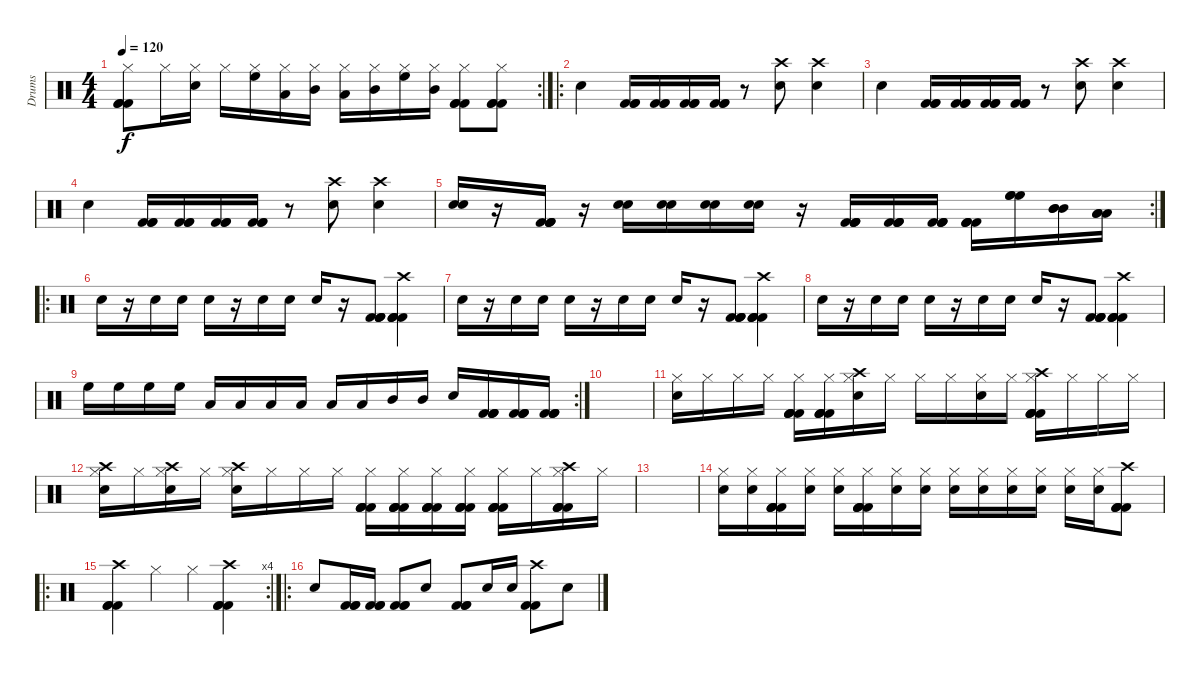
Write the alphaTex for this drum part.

\track ("Drums" "Drums") {instrument percussion}
\staff {score}
\articulation defaults
\rc 2
\ts (4 4)
\tempo 120
\clef neutral
\ks c
("Hi-Hat (closed)" "Kick (hit) 2" "Kick (hit) 2" "Kick (hit) 2").8{dy f} "Hi-Hat (closed)".16 ("Hi-Hat (closed)" "Snare (hit) 2").16 "Hi-Hat (closed)".16 ("Hi-Hat (closed)" "High Floor Tom (hit)").16 ("Hi-Hat (closed)" "Low Floor Tom (hit)").16 ("Hi-Hat (closed)" "Mid Tom (hit)").16 ("Hi-Hat (closed)" "Low Tom (hit)").16 ("Hi-Hat (closed)" "Mid Tom (hit)").16 ("Hi-Hat (closed)" "High Floor Tom (hit)").16 ("Hi-Hat (closed)" "Mid Tom (hit)").16 ("Hi-Hat (closed)" "Kick (hit) 2" "Kick (hit) 2" "Kick (hit) 2").8 ("Hi-Hat (closed)" "Kick (hit) 2" "Kick (hit) 2" "Kick (hit) 2").8 |
\ro "Snare (hit) 2".4
("Kick (hit) 2" "Kick (hit) 2" "Kick (hit) 2").16 ("Kick (hit) 2" "Kick (hit) 2" "Kick (hit) 2").16 ("Kick (hit) 2" "Kick (hit) 2" "Kick (hit) 2").16 ("Kick (hit) 2" "Kick (hit) 2" "Kick (hit) 2").16 r.8 ("Crash high (hit)" "Snare (hit) 2").8 ("Crash high (hit)" "Snare (hit) 2").4 |
"Snare (hit) 2".4 ("Kick (hit) 2" "Kick (hit) 2" "Kick (hit) 2").16 ("Kick (hit) 2" "Kick (hit) 2" "Kick (hit) 2").16 ("Kick (hit) 2" "Kick (hit) 2" "Kick (hit) 2").16 ("Kick (hit) 2" "Kick (hit) 2" "Kick (hit) 2").16 r.8 ("Crash high (hit)" "Snare (hit) 2").8 ("Crash high (hit)" "Snare (hit) 2").4 |
"Snare (hit) 2".4 ("Kick (hit) 2" "Kick (hit) 2" "Kick (hit) 2").16 ("Kick (hit) 2" "Kick (hit) 2" "Kick (hit) 2").16 ("Kick (hit) 2" "Kick (hit) 2" "Kick (hit) 2").16 ("Kick (hit) 2" "Kick (hit) 2" "Kick (hit) 2").16 r.8 ("Crash high (hit)" "Snare (hit) 2").8 ("Crash high (hit)" "Snare (hit) 2").4 |
\rc 2
("Snare (hit) 2" "Snare (hit) 2").16 r.16 ("Kick (hit) 2" "Kick (hit) 2" "Kick (hit) 2" "Kick (hit) 2").16 r.16 ("Snare (hit) 2" "Snare (hit) 2").16 ("Snare (hit) 2" "Snare (hit) 2").16 ("Snare (hit) 2" "Snare (hit) 2").16 ("Snare (hit) 2" "Snare (hit) 2").16 r.16 ("Kick (hit) 2" "Kick (hit) 2" "Kick (hit) 2" "Kick (hit) 2").16 ("Kick (hit) 2" "Kick (hit) 2" "Kick (hit) 2" "Kick (hit) 2").16 ("Kick (hit) 2" "Kick (hit) 2" "Kick (hit) 2" "Kick (hit) 2").16 ("Kick (hit) 2" "Kick (hit) 2" "Kick (hit) 2" "Kick (hit) 2").16 ("High Floor Tom (hit)" "High Floor Tom (hit)" "High Floor Tom (hit)").16 ("Mid Tom (hit)" "Mid Tom (hit)" "Mid Tom (hit)").16 ("Low Tom (hit)" "Low Tom (hit)" "Low Tom (hit)").16 |
\ro "Snare (hit) 2".16
r.16 "Snare (hit) 2".16 "Snare (hit) 2".16 "Snare (hit) 2".16 r.16 "Snare (hit) 2".16 "Snare (hit) 2".16 "Snare (hit) 2".16 r.16 ("Kick (hit) 2" "Kick (hit) 2" "Kick (hit) 2" "Kick (hit) 2").8 ("Crash high (hit)" "Kick (hit) 2" "Kick (hit) 2" "Kick (hit) 2" "Kick (hit) 2").4 |
"Snare (hit) 2".16 r.16 "Snare (hit) 2".16 "Snare (hit) 2".16 "Snare (hit) 2".16 r.16 "Snare (hit) 2".16 "Snare (hit) 2".16 "Snare (hit) 2".16 r.16 ("Kick (hit) 2" "Kick (hit) 2" "Kick (hit) 2" "Kick (hit) 2").8 ("Crash high (hit)" "Kick (hit) 2" "Kick (hit) 2" "Kick (hit) 2" "Kick (hit) 2").4 |
"Snare (hit) 2".16 r.16 "Snare (hit) 2".16 "Snare (hit) 2".16 "Snare (hit) 2".16 r.16 "Snare (hit) 2".16 "Snare (hit) 2".16 "Snare (hit) 2".16 r.16 ("Kick (hit) 2" "Kick (hit) 2" "Kick (hit) 2" "Kick (hit) 2").8 ("Crash high (hit)" "Kick (hit) 2" "Kick (hit) 2" "Kick (hit) 2" "Kick (hit) 2").4 |
\rc 2 "High Floor Tom (hit)".16 "High Floor Tom (hit)".16 "High Floor Tom (hit)".16 "High Floor Tom (hit)".16 "Low Tom (hit)".16 "Low Tom (hit)".16 "Low Tom (hit)".16 "Low Tom (hit)".16 "Low Floor Tom (hit)".16 "Low Floor Tom (hit)".16 "Mid Tom (hit)".16 "Mid Tom (hit)".16 "Snare (hit) 2".16
("Kick (hit) 2" "Kick (hit) 2" "Kick (hit) 2" "Kick (hit) 2").16 ("Kick (hit) 2" "Kick (hit) 2" "Kick (hit) 2" "Kick (hit) 2").16 ("Kick (hit) 2" "Kick (hit) 2" "Kick (hit) 2" "Kick (hit) 2").16 |
|
("Hi-Hat (closed)" "Snare (hit) 2").16 "Hi-Hat (closed)".16 "Hi-Hat (closed)".16 "Hi-Hat (closed)".16 ("Hi-Hat (closed)" "Kick (hit) 2" "Kick (hit) 2" "Kick (hit) 2" "Kick (hit) 2").16 ("Hi-Hat (closed)" "Kick (hit) 2" "Kick (hit) 2" "Kick (hit) 2" "Kick (hit) 2").16 ("Hi-Hat (closed)" "Crash high (hit)" "Snare (hit) 2").16 "Hi-Hat (closed)".16 "Hi-Hat (closed)".16 "Hi-Hat (closed)".16 ("Hi-Hat (closed)" "Snare (hit) 2").16 "Hi-Hat (closed)".16 ("Hi-Hat (closed)" "Crash high (hit)" "Kick (hit) 2" "Kick (hit) 2" "Kick (hit) 2" "Kick (hit) 2").16 "Hi-Hat (closed)".16 "Hi-Hat (closed)".16 "Hi-Hat (closed)".16 |
("Hi-Hat (closed)" "Snare (hit) 2" "Crash high (hit)").16 "Hi-Hat (closed)".16 ("Hi-Hat (closed)" "Snare (hit) 2" "Crash high (hit)").16 "Hi-Hat (closed)".16 ("Hi-Hat (closed)" "Snare (hit) 2" "Crash high (hit)").16 "Hi-Hat (closed)".16 "Hi-Hat (closed)".16 "Hi-Hat (closed)".16 ("Hi-Hat (closed)" "Kick (hit) 2" "Kick (hit) 2" "Kick (hit) 2" "Kick (hit) 2").16 ("Hi-Hat (closed)" "Kick (hit) 2" "Kick (hit) 2" "Kick (hit) 2" "Kick (hit) 2").16 ("Hi-Hat (closed)" "Kick (hit) 2" "Kick (hit) 2" "Kick (hit) 2" "Kick (hit) 2").16 ("Hi-Hat (closed)" "Kick (hit) 2" "Kick (hit) 2" "Kick (hit) 2" "Kick (hit) 2").16 ("Hi-Hat (closed)" "Kick (hit) 2" "Kick (hit) 2" "Kick (hit) 2" "Kick (hit) 2").16 "Hi-Hat (closed)".16 ("Hi-Hat (closed)" "Kick (hit) 2" "Kick (hit) 2" "Kick (hit) 2" "Kick (hit) 2" "Crash high (hit)").16 "Hi-Hat (closed)".16 |
|
("Snare (hit) 2" "Hi-Hat (closed)").16 ("Snare (hit) 2" "Hi-Hat (closed)").16 ("Kick (hit) 2" "Kick (hit) 2" "Kick (hit) 2" "Kick (hit) 2" "Hi-Hat (closed)").16 ("Snare (hit) 2" "Hi-Hat (closed)").16 ("Snare (hit) 2" "Hi-Hat (closed)").16 ("Kick (hit) 2" "Kick (hit) 2" "Kick (hit) 2" "Kick (hit) 2" "Hi-Hat (closed)").16 ("Snare (hit) 2" "Hi-Hat (closed)").16 ("Snare (hit) 2" "Hi-Hat (closed)").16 ("Snare (hit) 2" "Hi-Hat (closed)").16 ("Snare (hit) 2" "Hi-Hat (closed)").16 ("Snare (hit) 2" "Hi-Hat (closed)").16 ("Snare (hit) 2" "Hi-Hat (closed)").16 ("Snare (hit) 2" "Hi-Hat (closed)").16 ("Snare (hit) 2" "Hi-Hat (closed)").16 ("Crash high (hit)" "Kick (hit) 2" "Kick (hit) 2" "Kick (hit) 2" "Kick (hit) 2").8 |
\ro
\rc 4
("Crash high (hit)" "Kick (hit) 2" "Kick (hit) 2" "Kick (hit) 2").4 "Hi-Hat (closed)".4 "Hi-Hat (closed)".4 ("Crash high (hit)" "Kick (hit) 2" "Kick (hit) 2" "Kick (hit) 2").4 |
\ro "Snare (hit) 2".8
("Kick (hit) 2" "Kick (hit) 2" "Kick (hit) 2").16 ("Kick (hit) 2" "Kick (hit) 2" "Kick (hit) 2").16 ("Kick (hit) 2" "Kick (hit) 2" "Kick (hit) 2").8 "Snare (hit) 2".8 ("Kick (hit) 2" "Kick (hit) 2" "Kick (hit) 2").8 "Snare (hit) 2".16 "Snare (hit) 2".16 ("Crash high (hit)" "Kick (hit) 2" "Kick (hit) 2").8 "Snare (hit) 2".8
